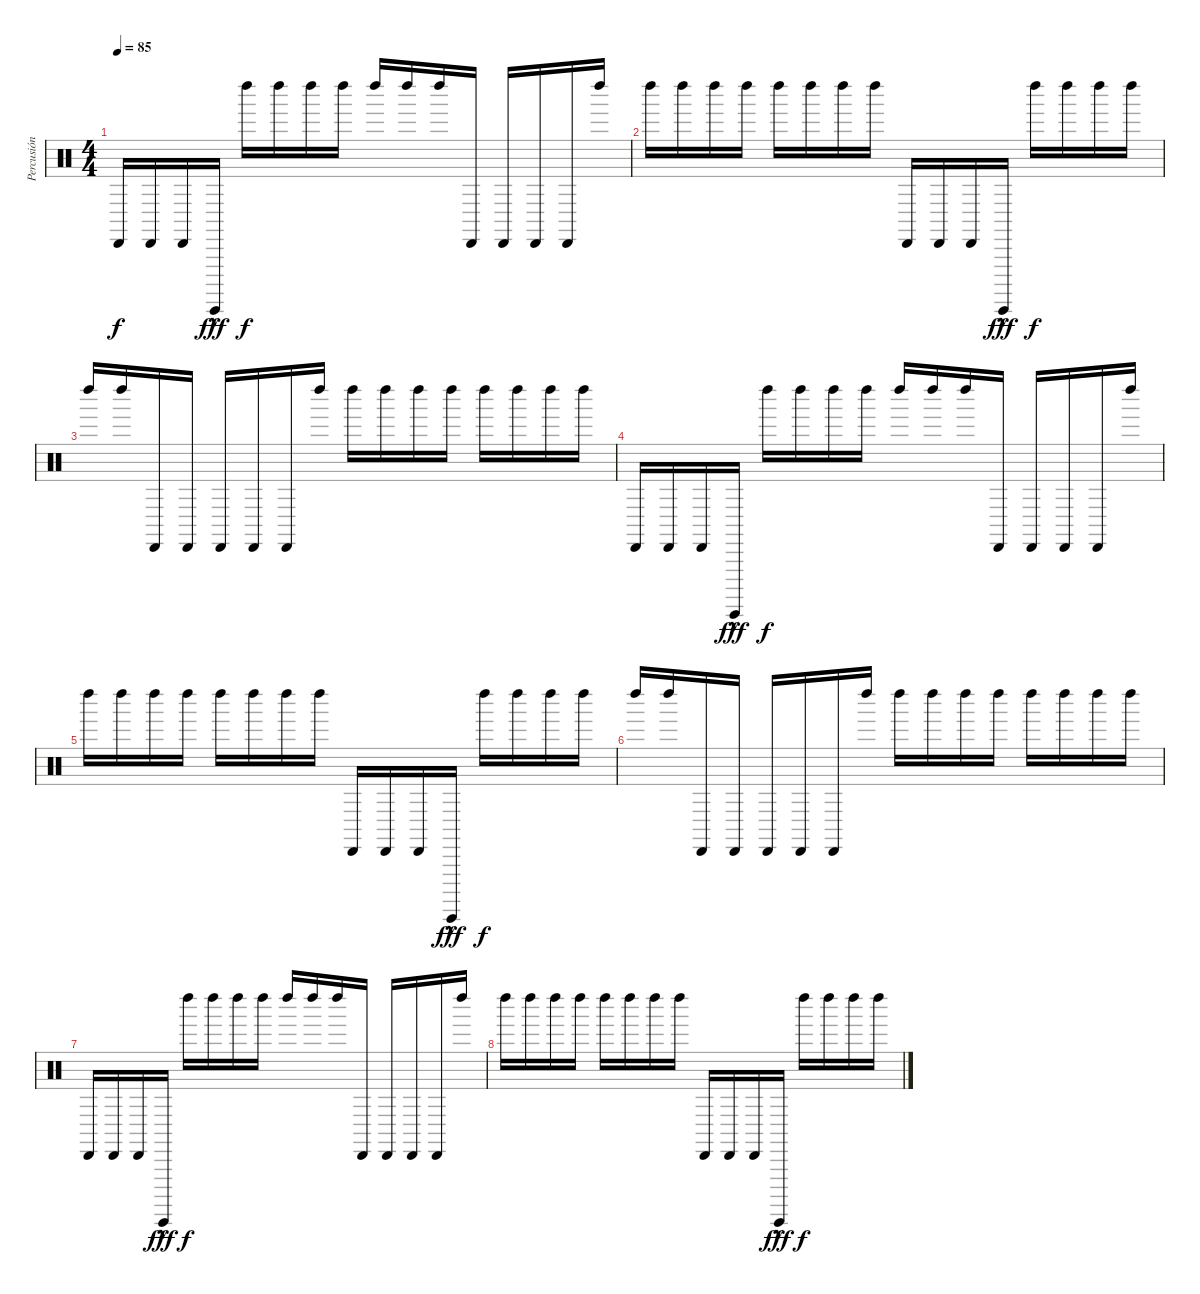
\track ("Percusión" "Percusión") {instrument percussion}
\staff {score}
\articulation defaults
\ts (4 4)
\tempo 85
\clef neutral
\ks c "Cabasa (hit)".16{dy f} "Cabasa (hit)".16 "Cabasa (hit)".16 "Guiro (hit)"{hac}.16{dy fff} "Left Maraca (hit)".16{dy f} "Left Maraca (hit)".16 "Left Maraca (hit)".16 "Left Maraca (hit)".16 "Left Maraca (hit)".16 "Left Maraca (hit)".16 "Left Maraca (hit)".16 "Cabasa (hit)".16 "Cabasa (hit)".16 "Cabasa (hit)".16 "Cabasa (hit)".16 "Left Maraca (hit)".16
|
"Left Maraca (hit)".16 "Left Maraca (hit)".16 "Left Maraca (hit)".16 "Left Maraca (hit)".16 "Left Maraca (hit)".16 "Left Maraca (hit)".16 "Left Maraca (hit)".16 "Left Maraca (hit)".16 "Cabasa (hit)".16 "Cabasa (hit)".16 "Cabasa (hit)".16 "Guiro (hit)"{hac}.16{dy fff} "Left Maraca (hit)".16{dy f} "Left Maraca (hit)".16 "Left Maraca (hit)".16 "Left Maraca (hit)".16 |
"Left Maraca (hit)".16 "Left Maraca (hit)".16 "Cabasa (hit)".16 "Cabasa (hit)".16 "Cabasa (hit)".16 "Cabasa (hit)".16 "Cabasa (hit)".16 "Left Maraca (hit)".16 "Left Maraca (hit)".16 "Left Maraca (hit)".16 "Left Maraca (hit)".16 "Left Maraca (hit)".16 "Left Maraca (hit)".16 "Left Maraca (hit)".16 "Left Maraca (hit)".16 "Left Maraca (hit)".16 |
"Cabasa (hit)".16 "Cabasa (hit)".16 "Cabasa (hit)".16 "Guiro (hit)"{hac}.16{dy fff} "Left Maraca (hit)".16{dy f} "Left Maraca (hit)".16 "Left Maraca (hit)".16 "Left Maraca (hit)".16 "Left Maraca (hit)".16 "Left Maraca (hit)".16 "Left Maraca (hit)".16 "Cabasa (hit)".16 "Cabasa (hit)".16 "Cabasa (hit)".16 "Cabasa (hit)".16 "Left Maraca (hit)".16 |
"Left Maraca (hit)".16 "Left Maraca (hit)".16 "Left Maraca (hit)".16 "Left Maraca (hit)".16 "Left Maraca (hit)".16 "Left Maraca (hit)".16 "Left Maraca (hit)".16 "Left Maraca (hit)".16 "Cabasa (hit)".16 "Cabasa (hit)".16 "Cabasa (hit)".16 "Guiro (hit)"{hac}.16{dy fff} "Left Maraca (hit)".16{dy f} "Left Maraca (hit)".16 "Left Maraca (hit)".16 "Left Maraca (hit)".16 |
"Left Maraca (hit)".16 "Left Maraca (hit)".16 "Cabasa (hit)".16 "Cabasa (hit)".16 "Cabasa (hit)".16 "Cabasa (hit)".16 "Cabasa (hit)".16 "Left Maraca (hit)".16 "Left Maraca (hit)".16 "Left Maraca (hit)".16 "Left Maraca (hit)".16 "Left Maraca (hit)".16 "Left Maraca (hit)".16 "Left Maraca (hit)".16 "Left Maraca (hit)".16 "Left Maraca (hit)".16 |
"Cabasa (hit)".16 "Cabasa (hit)".16 "Cabasa (hit)".16 "Guiro (hit)"{hac}.16{dy fff} "Left Maraca (hit)".16{dy f} "Left Maraca (hit)".16 "Left Maraca (hit)".16 "Left Maraca (hit)".16 "Left Maraca (hit)".16 "Left Maraca (hit)".16 "Left Maraca (hit)".16 "Cabasa (hit)".16 "Cabasa (hit)".16 "Cabasa (hit)".16 "Cabasa (hit)".16 "Left Maraca (hit)".16 |
"Left Maraca (hit)".16 "Left Maraca (hit)".16 "Left Maraca (hit)".16 "Left Maraca (hit)".16 "Left Maraca (hit)".16 "Left Maraca (hit)".16 "Left Maraca (hit)".16 "Left Maraca (hit)".16 "Cabasa (hit)".16 "Cabasa (hit)".16 "Cabasa (hit)".16 "Guiro (hit)"{hac}.16{dy fff} "Left Maraca (hit)".16{dy f} "Left Maraca (hit)".16 "Left Maraca (hit)".16 "Left Maraca (hit)".16
